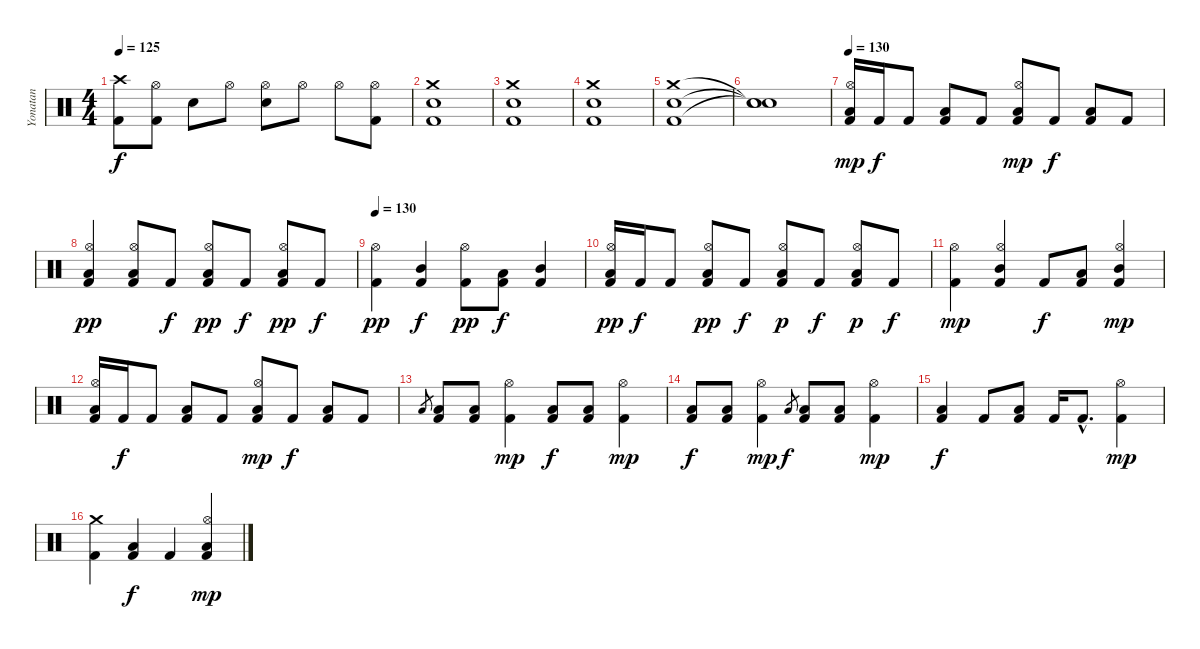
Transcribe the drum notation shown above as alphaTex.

\track ("Yonatan" "Yonatan") {instrument percussion}
\staff {score}
\articulation defaults
\ts (4 4)
\tempo 125
\clef neutral
\ks c
("Crash high (hit)" "Kick (hit) 2").8{dy f} ("Hi-Hat (open)" "Kick (hit) 2").8 "Electric Snare (hit)".8 "Hi-Hat (open)".8 ("Hi-Hat (open)" "Electric Snare (hit)").8 "Hi-Hat (open)".8 "Hi-Hat (open)".8 ("Hi-Hat (open)" "Kick (hit) 2").8 |
("Kick (hit) 2" "Snare (hit) 2" "Crash medium (hit)").1 |
("Kick (hit) 2" "Snare (hit) 2" "Crash medium (hit)").1 |
("Kick (hit) 2" "Snare (hit) 2" "Crash medium (hit)").1 |
("Kick (hit) 2" "Snare (hit) 2" "Crash medium (hit)").1 |
("Snare (hit)"{t} "Snare (hit)"{t} "Snare (hit)"{t}).1 |
\tempo 130
("Hi-Hat (open)" "Kick (hit) 2" "Low Tom (hit)").16{dy mp} "Kick (hit) 2".16{dy f} "Kick (hit) 2".8 ("Kick (hit) 2" "Low Tom (hit)").8 "Kick (hit) 2".8 ("Hi-Hat (open)" "Kick (hit) 2" "Low Tom (hit)").8{dy mp} "Kick (hit) 2".8{dy f} ("Kick (hit) 2" "Low Tom (hit)").8 "Kick (hit) 2".8 |
("Hi-Hat (open)" "Kick (hit) 2" "Low Tom (hit)").4{dy pp} ("Hi-Hat (open)" "Kick (hit) 2" "Low Tom (hit)").8 "Kick (hit) 2".8{dy f} ("Hi-Hat (open)" "Kick (hit) 2" "Low Tom (hit)").8{dy pp} "Kick (hit) 2".8{dy f} ("Hi-Hat (open)" "Kick (hit) 2" "Low Tom (hit)").8{dy pp} "Kick (hit) 2".8{dy f} |
\tempo 130
("Hi-Hat (open)" "Kick (hit) 2").4{dy pp} ("Kick (hit) 2" "Mid Tom (hit)").4{dy f} ("Hi-Hat (open)" "Kick (hit) 2").8{dy pp} ("Kick (hit) 2" "Low Tom (hit)").8{dy f} ("Kick (hit) 2" "Mid Tom (hit)").4 |
("Hi-Hat (open)" "Kick (hit) 2" "Low Tom (hit)").16{dy pp} "Kick (hit) 2".16{dy f} "Kick (hit) 2".8 ("Hi-Hat (open)" "Kick (hit) 2" "Low Tom (hit)").8{dy pp} "Kick (hit) 2".8{dy f} ("Hi-Hat (open)" "Kick (hit) 2" "Low Tom (hit)").8{dy p} "Kick (hit) 2".8{dy f} ("Hi-Hat (open)" "Kick (hit) 2" "Low Tom (hit)").8{dy p} "Kick (hit) 2".8{dy f} |
("Hi-Hat (open)" "Kick (hit) 2").4{dy mp} ("Hi-Hat (open)" "Kick (hit) 2" "Mid Tom (hit)").4 "Kick (hit) 2".8{dy f} ("Kick (hit) 2" "Low Tom (hit)").8 ("Hi-Hat (open)" "Kick (hit) 2" "Mid Tom (hit)").4{dy mp} |
("Hi-Hat (open)" "Kick (hit) 2" "Low Tom (hit)").16 "Kick (hit) 2".16{dy f} "Kick (hit) 2".8 ("Kick (hit) 2" "Low Tom (hit)").8 "Kick (hit) 2".8 ("Hi-Hat (open)" "Kick (hit) 2" "Low Tom (hit)").8{dy mp} "Kick (hit) 2".8{dy f} ("Kick (hit) 2" "Low Tom (hit)").8 "Kick (hit) 2".8 |
"Low Tom (hit)".8{gr} ("Kick (hit) 2" "Low Tom (hit)").8 ("Kick (hit) 2" "Low Tom (hit)").8 ("Hi-Hat (open)" "Kick (hit) 2").4{dy mp} ("Kick (hit) 2" "Low Tom (hit)").8{dy f} ("Kick (hit) 2" "Low Tom (hit)").8 ("Hi-Hat (open)" "Kick (hit) 2").4{dy mp} |
("Kick (hit) 2" "Low Tom (hit)").8{dy f} ("Kick (hit) 2" "Low Tom (hit)").8 ("Hi-Hat (open)" "Kick (hit) 2").4{dy mp} "Low Tom (hit)".8{gr dy f} ("Kick (hit) 2" "Low Tom (hit)").8 ("Kick (hit) 2" "Low Tom (hit)").8 ("Hi-Hat (open)" "Kick (hit) 2").4{dy mp} |
("Kick (hit) 2" "Low Tom (hit)").4{dy f} "Kick (hit) 2".8 ("Kick (hit) 2" "Low Tom (hit)").8 "Kick (hit) 2".16 "Kick (hit) 2"{hac}.8{d} ("Hi-Hat (open)" "Kick (hit) 2").4{dy mp} |
("Crash medium (hit)" "Kick (hit) 2").4 ("Kick (hit) 2" "Low Tom (hit)").4{dy f} "Kick (hit) 2".4 ("Hi-Hat (open)" "Kick (hit) 2" "Low Tom (hit)").4{dy mp}
